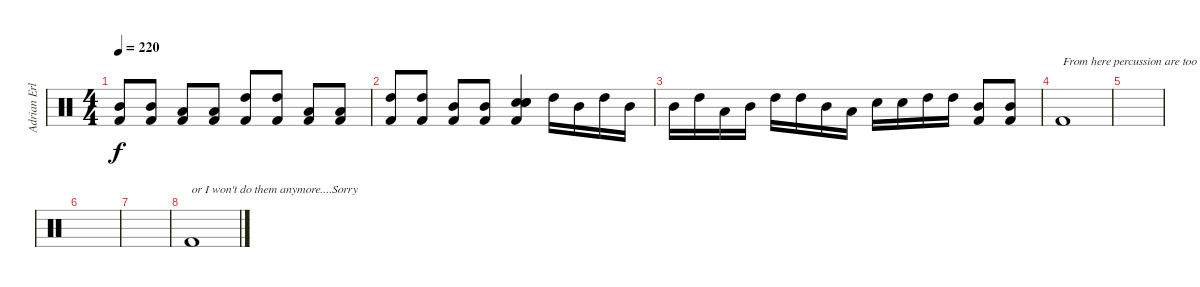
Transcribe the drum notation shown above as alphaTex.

\track ("Adrian Erlandsson" "Adrian Erl") {instrument percussion}
\staff {score}
\articulation defaults
\ts (4 4)
\tempo 220
\clef neutral
\ks c
("Mid Tom (hit)" "Kick (hit) 2").8{dy f} ("Mid Tom (hit)" "Kick (hit) 2").8 ("Low Tom (hit)" "Kick (hit) 2").8 ("Low Tom (hit)" "Kick (hit) 2").8 ("High Tom (hit)" "Kick (hit) 2").8 ("High Tom (hit)" "Kick (hit) 2").8 ("Low Tom (hit)" "Kick (hit) 2").8 ("Low Tom (hit)" "Kick (hit) 2").8 |
("High Tom (hit)" "Kick (hit) 2").8 ("High Tom (hit)" "Kick (hit) 2").8 ("Mid Tom (hit)" "Kick (hit) 2").8 ("Mid Tom (hit)" "Kick (hit) 2").8 ("Snare (hit) 2" "Snare (hit) 2" "Snare (hit) 2" "Kick (hit) 2").4 "High Tom (hit)".16 "Mid Tom (hit)".16 "High Tom (hit)".16 "Mid Tom (hit)".16 |
"Mid Tom (hit)".16 "High Tom (hit)".16 "Low Tom (hit)".16 "Mid Tom (hit)".16 "High Tom (hit)".16 "High Tom (hit)".16 "Mid Tom (hit)".16 "Low Tom (hit)".16 "Snare (hit) 2".16 "Snare (hit) 2".16 "High Tom (hit)".16 "High Tom (hit)".16 ("Mid Tom (hit)" "Kick (hit) 2").8 ("Mid Tom (hit)" "Kick (hit) 2").8 |
"Kick (hit) 2".1{txt "From here percussion are too difficoult"} |
|
|
|
"Kick (hit) 2".1{txt "or I won't do them anymore....Sorry"}
